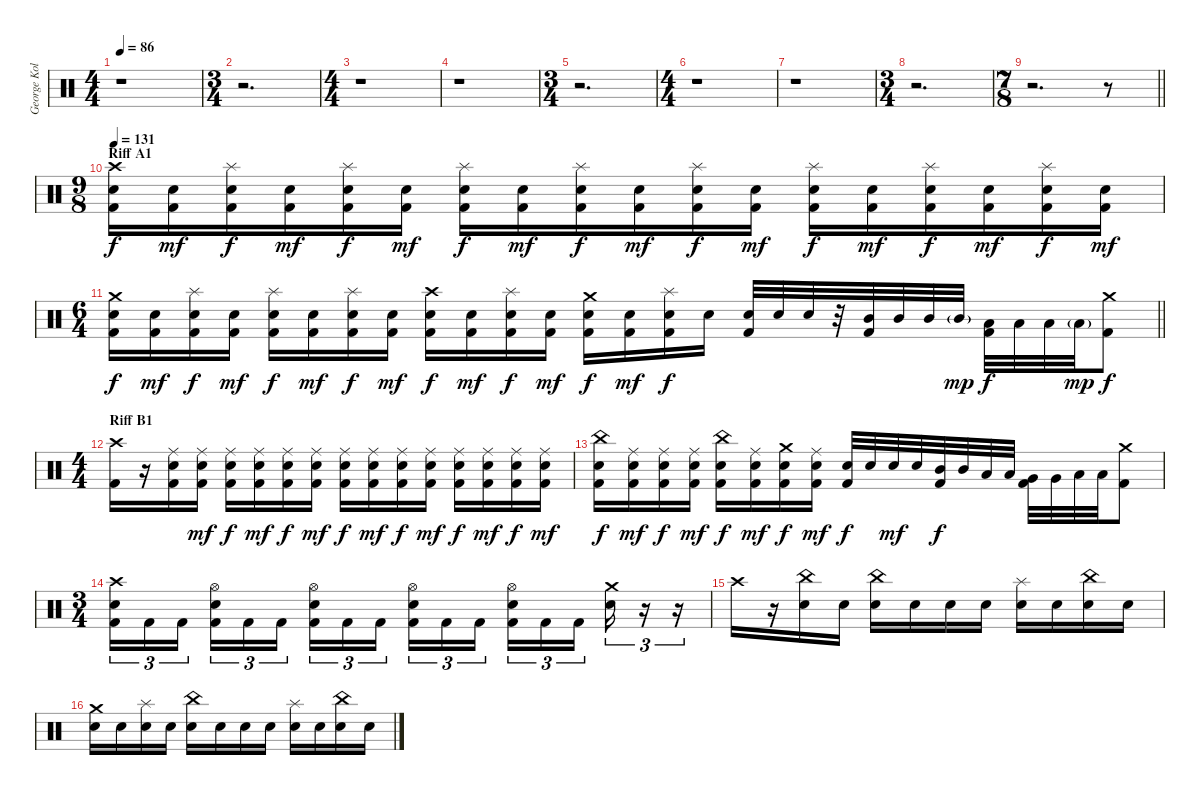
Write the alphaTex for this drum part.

\track ("George Kollias" "George Kol") {instrument percussion}
\staff {score}
\articulation defaults
\ts (4 4)
\tempo 86
\clef neutral
\ks c
r.1{dy f} |
\ts (3 4)
r.2{d} |
\ts (4 4)
r.1 |
r.1 |
\ts (3 4)
r.2{d} |
\ts (4 4)
r.1 |
r.1 |
\ts (3 4)
r.2{d} |
\ts (7 8)
\barLineRight lightlight
r.2{d} r.8 |
\ts (9 8)
\section ("" "Riff A1")
\tempo 131
("Crash high (hit)" "Electric Snare (hit)" "Kick (hit) 2").16{volume 12} ("Electric Snare (hit)" "Kick (hit) 2").16{dy mf} ("Splash (hit)" "Electric Snare (hit)" "Kick (hit) 2").16{dy f} ("Electric Snare (hit)" "Kick (hit) 2").16{dy mf} ("Splash (hit)" "Electric Snare (hit)" "Kick (hit) 2").16{dy f} ("Electric Snare (hit)" "Kick (hit) 2").16{dy mf} ("Splash (hit)" "Electric Snare (hit)" "Kick (hit) 2").16{dy f} ("Electric Snare (hit)" "Kick (hit) 2").16{dy mf} ("Splash (hit)" "Electric Snare (hit)" "Kick (hit) 2").16{dy f} ("Electric Snare (hit)" "Kick (hit) 2").16{dy mf} ("Splash (hit)" "Electric Snare (hit)" "Kick (hit) 2").16{dy f} ("Electric Snare (hit)" "Kick (hit) 2").16{dy mf} ("Splash (hit)" "Electric Snare (hit)" "Kick (hit) 2").16{dy f} ("Electric Snare (hit)" "Kick (hit) 2").16{dy mf} ("Splash (hit)" "Electric Snare (hit)" "Kick (hit) 2").16{dy f} ("Electric Snare (hit)" "Kick (hit) 2").16{dy mf} ("Splash (hit)" "Electric Snare (hit)" "Kick (hit) 2").16{dy f} ("Electric Snare (hit)" "Kick (hit) 2").16{dy mf} |
\ts (6 4)
\barLineRight lightlight
("Crash medium (hit)" "Electric Snare (hit)" "Kick (hit) 2").16{dy f} ("Electric Snare (hit)" "Kick (hit) 2").16{dy mf} ("Splash (hit)" "Electric Snare (hit)" "Kick (hit) 2").16{dy f} ("Electric Snare (hit)" "Kick (hit) 2").16{dy mf} ("Splash (hit)" "Electric Snare (hit)" "Kick (hit) 2").16{dy f} ("Electric Snare (hit)" "Kick (hit) 2").16{dy mf} ("Splash (hit)" "Electric Snare (hit)" "Kick (hit) 2").16{dy f} ("Electric Snare (hit)" "Kick (hit) 2").16{dy mf} ("Crash high (hit)" "Electric Snare (hit)" "Kick (hit) 2").16{dy f} ("Electric Snare (hit)" "Kick (hit) 2").16{dy mf} ("Splash (hit)" "Electric Snare (hit)" "Kick (hit) 2").16{dy f} ("Electric Snare (hit)" "Kick (hit) 2").16{dy mf} ("Crash medium (hit)" "Electric Snare (hit)" "Kick (hit) 2").16{dy f} ("Electric Snare (hit)" "Kick (hit) 2").16{dy mf} ("Splash (hit)" "Electric Snare (hit)" "Kick (hit) 2").16{dy f} "Electric Snare (hit)".16 ("Electric Snare (hit)" "Kick (hit) 2").32 "Electric Snare (hit)".32 "Electric Snare (hit)".32 r.32 ("Mid Tom (hit)" "Kick (hit) 2").32 "Mid Tom (hit)".32 "Mid Tom (hit)".32 "Mid Tom (hit)"{g}.32{dy mp} ("Low Tom (hit)" "Kick (hit) 2").32{dy f} "Low Tom (hit)".32 "Low Tom (hit)".32 "Low Tom (hit)"{g}.32{dy mp} ("Crash medium (hit)" "Kick (hit) 2").8{dy f} |
\ts (4 4)
\section ("" "Riff B1")
("Crash high (hit)" "Kick (hit) 2").16 r.16 ("Ride (middle)" "Electric Snare (hit)" "Kick (hit) 2").16 ("Ride (middle)" "Electric Snare (hit)" "Kick (hit) 2").16{dy mf} ("Ride (middle)" "Electric Snare (hit)" "Kick (hit) 2").16{dy f} ("Ride (middle)" "Electric Snare (hit)" "Kick (hit) 2").16{dy mf} ("Ride (middle)" "Electric Snare (hit)" "Kick (hit) 2").16{dy f} ("Ride (middle)" "Electric Snare (hit)" "Kick (hit) 2").16{dy mf} ("Ride (middle)" "Electric Snare (hit)" "Kick (hit) 2").16{dy f} ("Ride (middle)" "Electric Snare (hit)" "Kick (hit) 2").16{dy mf} ("Ride (middle)" "Electric Snare (hit)" "Kick (hit) 2").16{dy f} ("Ride (middle)" "Electric Snare (hit)" "Kick (hit) 2").16{dy mf} ("Ride (middle)" "Electric Snare (hit)" "Kick (hit) 2").16{dy f} ("Ride (middle)" "Electric Snare (hit)" "Kick (hit) 2").16{dy mf} ("Ride (middle)" "Electric Snare (hit)" "Kick (hit) 2").16{dy f} ("Ride (middle)" "Electric Snare (hit)" "Kick (hit) 2").16{dy mf} |
("China (hit)" "Electric Snare (hit)" "Kick (hit) 2").16{dy f} ("Ride (middle)" "Electric Snare (hit)" "Kick (hit) 2").16{dy mf} ("Ride (middle)" "Electric Snare (hit)" "Kick (hit) 2").16{dy f} ("Ride (middle)" "Electric Snare (hit)" "Kick (hit) 2").16{dy mf} ("China (hit)" "Electric Snare (hit)" "Kick (hit) 2").16{dy f} ("Ride (middle)" "Electric Snare (hit)" "Kick (hit) 2").16{dy mf} ("Crash medium (hit)" "Electric Snare (hit)" "Kick (hit) 2").16{dy f} ("Ride (middle)" "Electric Snare (hit)" "Kick (hit) 2").16{dy mf} ("Electric Snare (hit)" "Kick (hit) 2").32{dy f} "Electric Snare (hit)".32 "Electric Snare (hit)".32{dy mf} "Electric Snare (hit)".32 ("Mid Tom (hit)" "Kick (hit) 2").32{dy f} "Mid Tom (hit)".32 "Low Tom (hit)".32 "Low Tom (hit)".32 ("Very Low Tom (hit)" "Kick (hit) 2").32 "Very Low Tom (hit)".32 "Low Floor Tom (hit)".32 "Low Floor Tom (hit)".32 ("Crash medium (hit)" "Kick (hit) 2").8 |
\ts (3 4)
("Crash high (hit)" "Electric Snare (hit)" "Kick (hit) 2").16{tu (3 2)} "Kick (hit) 2".16{tu (3 2)} "Kick (hit) 2".16{tu (3 2) beam splitsecondary} ("Hi-Hat (open)" "Electric Snare (hit)" "Kick (hit) 2").16{tu (3 2)} "Kick (hit) 2".16{tu (3 2)} "Kick (hit) 2".16{tu (3 2)} ("Hi-Hat (open)" "Electric Snare (hit)" "Kick (hit) 2").16{tu (3 2)} "Kick (hit) 2".16{tu (3 2)} "Kick (hit) 2".16{tu (3 2) beam splitsecondary} ("Hi-Hat (open)" "Electric Snare (hit)" "Kick (hit) 2").16{tu (3 2)} "Kick (hit) 2".16{tu (3 2)} "Kick (hit) 2".16{tu (3 2)} ("Hi-Hat (open)" "Electric Snare (hit)" "Kick (hit) 2").16{tu (3 2)} "Kick (hit) 2".16{tu (3 2)} "Kick (hit) 2".16{tu (3 2) beam splitsecondary} ("Crash medium (hit)" "Electric Snare (hit)").16{tu (3 2)} r.16{tu (3 2)} r.16{tu (3 2)} |
"Crash high (hit)".16 r.16 ("China (hit)" "Electric Snare (hit)").16 "Electric Snare (hit)".16 ("China (hit)" "Electric Snare (hit)").16 "Electric Snare (hit)".16 "Electric Snare (hit)".16 "Electric Snare (hit)".16 ("Splash (hit)" "Electric Snare (hit)").16 "Electric Snare (hit)".16 ("China (hit)" "Electric Snare (hit)").16 "Electric Snare (hit)".16 |
("Crash medium (hit)" "Electric Snare (hit)").16 "Electric Snare (hit)".16 ("Splash (hit)" "Electric Snare (hit)").16 "Electric Snare (hit)".16 ("China (hit)" "Electric Snare (hit)").16 "Electric Snare (hit)".16 "Electric Snare (hit)".16 "Electric Snare (hit)".16 ("Splash (hit)" "Electric Snare (hit)").16 "Electric Snare (hit)".16 ("China (hit)" "Electric Snare (hit)").16 "Electric Snare (hit)".16
